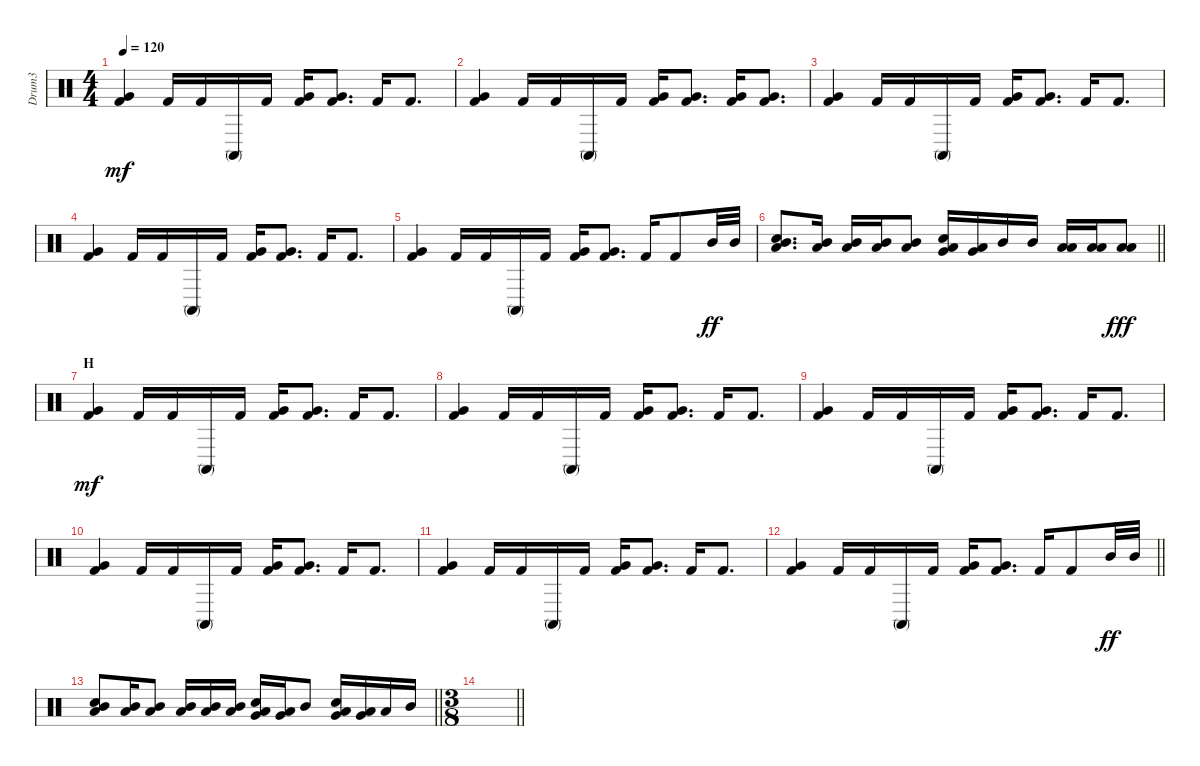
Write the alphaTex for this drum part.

\track ("Drum3" "Drum3") {instrument percussion}
\staff {score}
\articulation defaults
\ts (4 4)
\tempo 120
\clef neutral
\ks c
("Kick (hit) 2" "Very Low Tom (hit)").4{dy mf} "Kick (hit) 2".16 "Kick (hit) 2".16 "Conga high (mute)".16 "Kick (hit) 2".16 ("Kick (hit) 2" "Very Low Tom (hit)").16 ("Kick (hit) 2" "Very Low Tom (hit)").8{d} "Kick (hit) 2".16 "Kick (hit) 2".8{d} |
("Kick (hit) 2" "Very Low Tom (hit)").4 "Kick (hit) 2".16 "Kick (hit) 2".16 "Conga high (mute)".16 "Kick (hit) 2".16 ("Kick (hit) 2" "Very Low Tom (hit)").16 ("Kick (hit) 2" "Very Low Tom (hit)").8{d} ("Kick (hit) 2" "Very Low Tom (hit)").16 ("Kick (hit) 2" "Very Low Tom (hit)").8{d} |
("Kick (hit) 2" "Very Low Tom (hit)").4 "Kick (hit) 2".16 "Kick (hit) 2".16 "Conga high (mute)".16 "Kick (hit) 2".16 ("Kick (hit) 2" "Very Low Tom (hit)").16 ("Kick (hit) 2" "Very Low Tom (hit)").8{d} "Kick (hit) 2".16 "Kick (hit) 2".8{d} |
("Kick (hit) 2" "Very Low Tom (hit)").4 "Kick (hit) 2".16 "Kick (hit) 2".16 "Conga high (mute)".16 "Kick (hit) 2".16 ("Kick (hit) 2" "Very Low Tom (hit)").16 ("Kick (hit) 2" "Very Low Tom (hit)").8{d} "Kick (hit) 2".16 "Kick (hit) 2".8{d} |
("Kick (hit) 2" "Very Low Tom (hit)").4 "Kick (hit) 2".16 "Kick (hit) 2".16 "Conga high (mute)".16 "Kick (hit) 2".16 ("Kick (hit) 2" "Very Low Tom (hit)").16 ("Kick (hit) 2" "Very Low Tom (hit)").8{d} "Kick (hit) 2".16 "Kick (hit) 2".8 "Mid Tom (hit)".32{dy ff} "Mid Tom (hit)".32 |
\barLineRight lightlight
("Mid Tom (hit)" "Snare (hit) 2" "Low Tom (hit)").8{d} ("Mid Tom (hit)" "Low Tom (hit)").16 ("Mid Tom (hit)" "Low Tom (hit)").16 ("Mid Tom (hit)" "Low Tom (hit)").16 ("Low Tom (hit)" "Mid Tom (hit)").8 ("Low Tom (hit)" "Very Low Tom (hit)" "Snare (hit) 2").16 ("Low Tom (hit)" "Very Low Tom (hit)").16 "Mid Tom (hit)".16 "Mid Tom (hit)".16 ("Low Floor Tom (hit)" "Low Tom (hit)").16 ("Low Floor Tom (hit)" "Low Tom (hit)").16 ("Low Floor Tom (hit)" "Low Tom (hit)").8{dy fff} |
\section ("" "H")
("Kick (hit) 2" "Very Low Tom (hit)").4{dy mf} "Kick (hit) 2".16 "Kick (hit) 2".16 "Conga high (mute)".16 "Kick (hit) 2".16 ("Kick (hit) 2" "Very Low Tom (hit)").16 ("Kick (hit) 2" "Very Low Tom (hit)").8{d} "Kick (hit) 2".16 "Kick (hit) 2".8{d} |
("Kick (hit) 2" "Very Low Tom (hit)").4 "Kick (hit) 2".16 "Kick (hit) 2".16 "Conga high (mute)".16 "Kick (hit) 2".16 ("Kick (hit) 2" "Very Low Tom (hit)").16 ("Kick (hit) 2" "Very Low Tom (hit)").8{d} "Kick (hit) 2".16 "Kick (hit) 2".8{d} |
("Kick (hit) 2" "Very Low Tom (hit)").4 "Kick (hit) 2".16 "Kick (hit) 2".16 "Conga high (mute)".16 "Kick (hit) 2".16 ("Kick (hit) 2" "Very Low Tom (hit)").16 ("Kick (hit) 2" "Very Low Tom (hit)").8{d} "Kick (hit) 2".16 "Kick (hit) 2".8{d} |
("Kick (hit) 2" "Very Low Tom (hit)").4 "Kick (hit) 2".16 "Kick (hit) 2".16 "Conga high (mute)".16 "Kick (hit) 2".16 ("Kick (hit) 2" "Very Low Tom (hit)").16 ("Kick (hit) 2" "Very Low Tom (hit)").8{d} "Kick (hit) 2".16 "Kick (hit) 2".8{d} |
("Kick (hit) 2" "Very Low Tom (hit)").4 "Kick (hit) 2".16 "Kick (hit) 2".16 "Conga high (mute)".16 "Kick (hit) 2".16 ("Kick (hit) 2" "Very Low Tom (hit)").16 ("Kick (hit) 2" "Very Low Tom (hit)").8{d} "Kick (hit) 2".16 "Kick (hit) 2".8{d} |
\barLineRight lightlight
("Kick (hit) 2" "Very Low Tom (hit)").4 "Kick (hit) 2".16 "Kick (hit) 2".16 "Conga high (mute)".16 "Kick (hit) 2".16 ("Kick (hit) 2" "Very Low Tom (hit)").16 ("Kick (hit) 2" "Very Low Tom (hit)").8{d} "Kick (hit) 2".16 "Kick (hit) 2".8 "Mid Tom (hit)".32{dy ff} "Mid Tom (hit)".32 |
\barLineRight lightlight
("Mid Tom (hit)" "Snare (hit) 2" "Low Tom (hit)").8 ("Mid Tom (hit)" "Low Tom (hit)").16 ("Mid Tom (hit)" "Low Tom (hit)").8 ("Mid Tom (hit)" "Low Tom (hit)").16 ("Mid Tom (hit)" "Low Tom (hit)").16 ("Mid Tom (hit)" "Low Tom (hit)").16 ("Low Tom (hit)" "Very Low Tom (hit)" "Snare (hit) 2").16 ("Low Tom (hit)" "Very Low Tom (hit)").16 "Mid Tom (hit)".8 ("Very Low Tom (hit)" "Low Floor Tom (hit)" "Snare (hit) 2").16 ("Very Low Tom (hit)" "Low Floor Tom (hit)").16 "Low Tom (hit)".16 "Mid Tom (hit)".16 |
\ts (3 8)
\barLineRight lightlight
